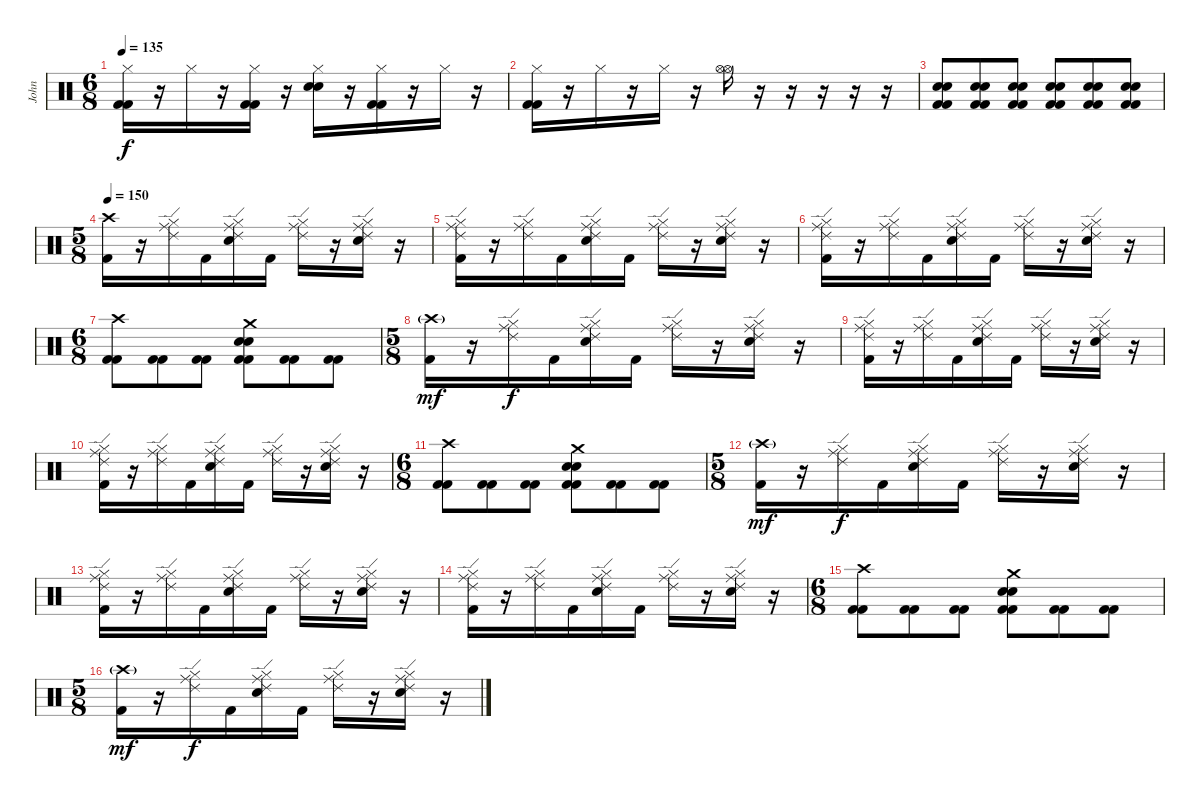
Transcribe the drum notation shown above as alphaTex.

\track ("John" "John") {instrument percussion}
\staff {score}
\articulation defaults
\ts (6 8)
\tempo 135
\clef neutral
\ks c
("Hi-Hat (closed)" "Kick (hit) 2" "Kick (hit) 2").16{dy f} r.16 "Hi-Hat (closed)".16 r.16 ("Hi-Hat (closed)" "Kick (hit) 2" "Kick (hit) 2").16 r.16 ("Hi-Hat (closed)" "Electric Snare (hit)" "Electric Snare (hit)").16 r.16 ("Hi-Hat (closed)" "Kick (hit) 2" "Kick (hit) 2").16 r.16 "Hi-Hat (closed)".16 r.16 |
("Hi-Hat (closed)" "Kick (hit) 2" "Kick (hit) 2").16 r.16 "Hi-Hat (closed)".16 r.16 "Hi-Hat (closed)".16 r.16 ("Hi-Hat (open)" "Hi-Hat (open)").16 r.16 r.16 r.16 r.16 r.16 |
("Electric Snare (hit)" "Electric Snare (hit)" "Kick (hit) 2" "Kick (hit) 2").8 ("Electric Snare (hit)" "Electric Snare (hit)" "Kick (hit) 2" "Kick (hit) 2").8 ("Electric Snare (hit)" "Electric Snare (hit)" "Kick (hit) 2" "Kick (hit) 2").8 ("Electric Snare (hit)" "Electric Snare (hit)" "Kick (hit) 2" "Kick (hit) 2").8 ("Electric Snare (hit)" "Electric Snare (hit)" "Kick (hit) 2" "Kick (hit) 2").8 ("Electric Snare (hit)" "Electric Snare (hit)" "Kick (hit) 2" "Kick (hit) 2").8 |
\ts (5 8)
\tempo 150
("Crash high (hit)" "Kick (hit) 2").16 r.16 ("Ride (middle)" "Ride (edge) 2" "Hi-Hat (closed)").16 "Kick (hit) 2".16 ("Ride (middle)" "Electric Snare (hit)" "Ride (edge) 2" "Hi-Hat (closed)").16 "Kick (hit) 2".16 ("Ride (middle)" "Ride (edge) 2" "Hi-Hat (closed)").16 r.16 ("Ride (middle)" "Electric Snare (hit)" "Ride (edge) 2" "Hi-Hat (closed)").16 r.16 |
("Ride (middle)" "Kick (hit) 2" "Ride (edge) 2" "Hi-Hat (closed)").16 r.16 ("Ride (middle)" "Ride (edge) 2" "Hi-Hat (closed)").16 "Kick (hit) 2".16 ("Ride (middle)" "Electric Snare (hit)" "Ride (edge) 2" "Hi-Hat (closed)").16 "Kick (hit) 2".16 ("Ride (middle)" "Ride (edge) 2" "Hi-Hat (closed)").16 r.16 ("Ride (middle)" "Electric Snare (hit)" "Ride (edge) 2" "Hi-Hat (closed)").16 r.16 |
("Ride (middle)" "Kick (hit) 2" "Ride (edge) 2" "Hi-Hat (closed)").16 r.16 ("Ride (middle)" "Ride (edge) 2" "Hi-Hat (closed)").16 "Kick (hit) 2".16 ("Ride (middle)" "Electric Snare (hit)" "Ride (edge) 2" "Hi-Hat (closed)").16 "Kick (hit) 2".16 ("Ride (middle)" "Ride (edge) 2" "Hi-Hat (closed)").16 r.16 ("Ride (middle)" "Electric Snare (hit)" "Ride (edge) 2" "Hi-Hat (closed)").16 r.16 |
\ts (6 8)
("Crash high (hit)" "Kick (hit) 2" "Kick (hit) 2").8 ("Kick (hit) 2" "Kick (hit) 2").8 ("Kick (hit) 2" "Kick (hit) 2").8 ("Crash medium (hit)" "Electric Snare (hit)" "Electric Snare (hit)" "Kick (hit) 2" "Kick (hit) 2").8 ("Kick (hit) 2" "Kick (hit) 2").8 ("Kick (hit) 2" "Kick (hit) 2").8 |
\ts (5 8)
("Crash high (hit)"{g} "Kick (hit) 2").16{dy mf} r.16 ("Ride (middle)" "Ride (edge) 2" "Hi-Hat (closed)").16{dy f} "Kick (hit) 2".16 ("Ride (middle)" "Electric Snare (hit)" "Ride (edge) 2" "Hi-Hat (closed)").16 "Kick (hit) 2".16 ("Ride (middle)" "Ride (edge) 2" "Hi-Hat (closed)").16 r.16 ("Ride (middle)" "Electric Snare (hit)" "Ride (edge) 2" "Hi-Hat (closed)").16 r.16 |
("Ride (middle)" "Kick (hit) 2" "Ride (edge) 2" "Hi-Hat (closed)").16 r.16 ("Ride (middle)" "Ride (edge) 2" "Hi-Hat (closed)").16 "Kick (hit) 2".16 ("Ride (middle)" "Electric Snare (hit)" "Ride (edge) 2" "Hi-Hat (closed)").16 "Kick (hit) 2".16 ("Ride (middle)" "Ride (edge) 2" "Hi-Hat (closed)").16 r.16 ("Ride (middle)" "Electric Snare (hit)" "Ride (edge) 2" "Hi-Hat (closed)").16 r.16 |
("Ride (middle)" "Kick (hit) 2" "Ride (edge) 2" "Hi-Hat (closed)").16 r.16 ("Ride (middle)" "Ride (edge) 2" "Hi-Hat (closed)").16 "Kick (hit) 2".16 ("Ride (middle)" "Electric Snare (hit)" "Ride (edge) 2" "Hi-Hat (closed)").16 "Kick (hit) 2".16 ("Ride (middle)" "Ride (edge) 2" "Hi-Hat (closed)").16 r.16 ("Ride (middle)" "Electric Snare (hit)" "Ride (edge) 2" "Hi-Hat (closed)").16 r.16 |
\ts (6 8)
("Crash high (hit)" "Kick (hit) 2" "Kick (hit) 2").8 ("Kick (hit) 2" "Kick (hit) 2").8 ("Kick (hit) 2" "Kick (hit) 2").8 ("Crash medium (hit)" "Electric Snare (hit)" "Electric Snare (hit)" "Kick (hit) 2" "Kick (hit) 2").8 ("Kick (hit) 2" "Kick (hit) 2").8 ("Kick (hit) 2" "Kick (hit) 2").8 |
\ts (5 8)
("Crash high (hit)"{g} "Kick (hit) 2").16{dy mf} r.16 ("Ride (middle)" "Ride (edge) 2" "Hi-Hat (closed)").16{dy f} "Kick (hit) 2".16 ("Ride (middle)" "Electric Snare (hit)" "Ride (edge) 2" "Hi-Hat (closed)").16 "Kick (hit) 2".16 ("Ride (middle)" "Ride (edge) 2" "Hi-Hat (closed)").16 r.16 ("Ride (middle)" "Electric Snare (hit)" "Ride (edge) 2" "Hi-Hat (closed)").16 r.16 |
("Ride (middle)" "Kick (hit) 2" "Ride (edge) 2" "Hi-Hat (closed)").16 r.16 ("Ride (middle)" "Ride (edge) 2" "Hi-Hat (closed)").16 "Kick (hit) 2".16 ("Ride (middle)" "Electric Snare (hit)" "Ride (edge) 2" "Hi-Hat (closed)").16 "Kick (hit) 2".16 ("Ride (middle)" "Ride (edge) 2" "Hi-Hat (closed)").16 r.16 ("Ride (middle)" "Electric Snare (hit)" "Ride (edge) 2" "Hi-Hat (closed)").16 r.16 |
("Ride (middle)" "Kick (hit) 2" "Ride (edge) 2" "Hi-Hat (closed)").16 r.16 ("Ride (middle)" "Ride (edge) 2" "Hi-Hat (closed)").16 "Kick (hit) 2".16 ("Ride (middle)" "Electric Snare (hit)" "Ride (edge) 2" "Hi-Hat (closed)").16 "Kick (hit) 2".16 ("Ride (middle)" "Ride (edge) 2" "Hi-Hat (closed)").16 r.16 ("Ride (middle)" "Electric Snare (hit)" "Ride (edge) 2" "Hi-Hat (closed)").16 r.16 |
\ts (6 8)
("Crash high (hit)" "Kick (hit) 2" "Kick (hit) 2").8 ("Kick (hit) 2" "Kick (hit) 2").8 ("Kick (hit) 2" "Kick (hit) 2").8 ("Crash medium (hit)" "Electric Snare (hit)" "Electric Snare (hit)" "Kick (hit) 2" "Kick (hit) 2").8 ("Kick (hit) 2" "Kick (hit) 2").8 ("Kick (hit) 2" "Kick (hit) 2").8 |
\ts (5 8)
("Crash high (hit)"{g} "Kick (hit) 2").16{dy mf} r.16 ("Ride (middle)" "Ride (edge) 2" "Hi-Hat (closed)").16{dy f} "Kick (hit) 2".16 ("Ride (middle)" "Electric Snare (hit)" "Ride (edge) 2" "Hi-Hat (closed)").16 "Kick (hit) 2".16 ("Ride (middle)" "Ride (edge) 2" "Hi-Hat (closed)").16 r.16 ("Ride (middle)" "Electric Snare (hit)" "Ride (edge) 2" "Hi-Hat (closed)").16 r.16
